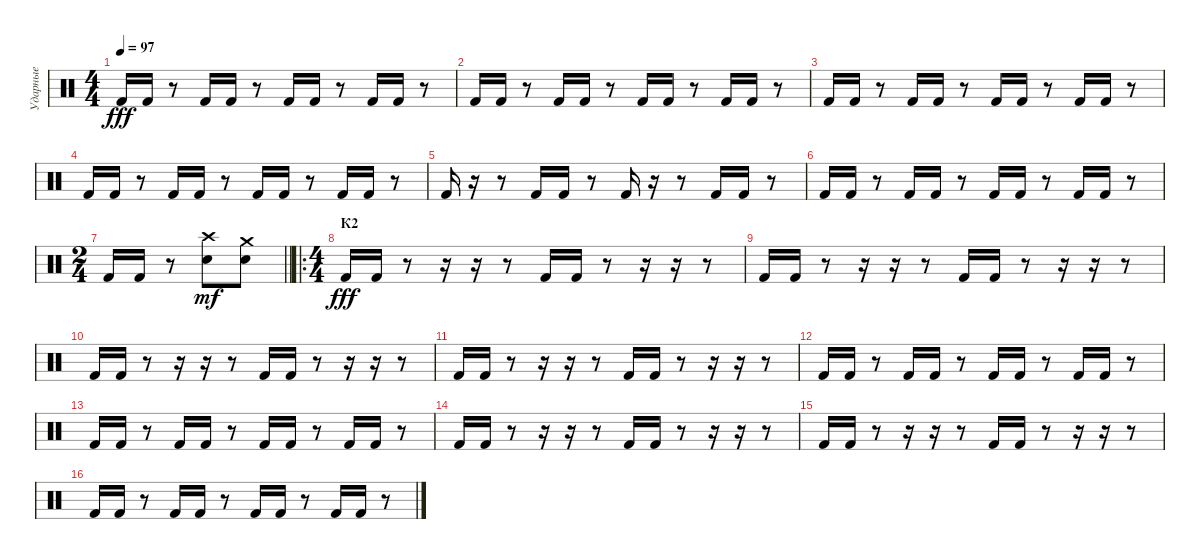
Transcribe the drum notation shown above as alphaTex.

\track ("Ударные" "Ударные") {instrument percussion}
\staff {score}
\articulation defaults
\ts (4 4)
\tempo 97
\clef neutral
\ks c "Kick (hit) 2".16{dy fff} "Kick (hit) 2".16
r.8 "Kick (hit) 2".16 "Kick (hit) 2".16 r.8 "Kick (hit) 2".16 "Kick (hit) 2".16 r.8 "Kick (hit) 2".16 "Kick (hit) 2".16 r.8 |
"Kick (hit) 2".16 "Kick (hit) 2".16 r.8 "Kick (hit) 2".16 "Kick (hit) 2".16 r.8 "Kick (hit) 2".16 "Kick (hit) 2".16 r.8 "Kick (hit) 2".16 "Kick (hit) 2".16 r.8 |
"Kick (hit) 2".16 "Kick (hit) 2".16 r.8 "Kick (hit) 2".16 "Kick (hit) 2".16 r.8 "Kick (hit) 2".16 "Kick (hit) 2".16 r.8 "Kick (hit) 2".16 "Kick (hit) 2".16 r.8 |
"Kick (hit) 2".16 "Kick (hit) 2".16 r.8 "Kick (hit) 2".16 "Kick (hit) 2".16 r.8 "Kick (hit) 2".16 "Kick (hit) 2".16 r.8 "Kick (hit) 2".16 "Kick (hit) 2".16 r.8 |
"Kick (hit) 2".16 r.16 r.8 "Kick (hit) 2".16 "Kick (hit) 2".16 r.8 "Kick (hit) 2".16 r.16 r.8 "Kick (hit) 2".16 "Kick (hit) 2".16 r.8 |
"Kick (hit) 2".16 "Kick (hit) 2".16 r.8 "Kick (hit) 2".16 "Kick (hit) 2".16 r.8 "Kick (hit) 2".16 "Kick (hit) 2".16 r.8 "Kick (hit) 2".16 "Kick (hit) 2".16 r.8 |
\ts (2 4)
\barLineRight lightlight "Kick (hit) 2".16 "Kick (hit) 2".16
r.8 ("Electric Snare (hit)" "Crash high (hit)").8{dy mf} ("Electric Snare (hit)" "Crash medium (hit)").8 |
\ro
\ts (4 4)
\section ("" "К2")
"Kick (hit) 2".16{dy fff} "Kick (hit) 2".16 r.8 r.16 r.16 r.8 "Kick (hit) 2".16 "Kick (hit) 2".16 r.8 r.16 r.16 r.8 |
"Kick (hit) 2".16 "Kick (hit) 2".16 r.8 r.16 r.16 r.8 "Kick (hit) 2".16 "Kick (hit) 2".16 r.8 r.16 r.16 r.8 |
"Kick (hit) 2".16 "Kick (hit) 2".16 r.8 r.16 r.16 r.8 "Kick (hit) 2".16 "Kick (hit) 2".16 r.8 r.16 r.16 r.8 |
"Kick (hit) 2".16 "Kick (hit) 2".16 r.8 r.16 r.16 r.8 "Kick (hit) 2".16 "Kick (hit) 2".16 r.8 r.16 r.16 r.8 |
"Kick (hit) 2".16 "Kick (hit) 2".16 r.8 "Kick (hit) 2".16 "Kick (hit) 2".16 r.8 "Kick (hit) 2".16 "Kick (hit) 2".16 r.8 "Kick (hit) 2".16 "Kick (hit) 2".16 r.8 |
"Kick (hit) 2".16 "Kick (hit) 2".16 r.8 "Kick (hit) 2".16 "Kick (hit) 2".16 r.8 "Kick (hit) 2".16 "Kick (hit) 2".16 r.8 "Kick (hit) 2".16 "Kick (hit) 2".16 r.8 |
"Kick (hit) 2".16 "Kick (hit) 2".16 r.8 r.16 r.16 r.8 "Kick (hit) 2".16 "Kick (hit) 2".16 r.8 r.16 r.16 r.8 |
"Kick (hit) 2".16 "Kick (hit) 2".16 r.8 r.16 r.16 r.8 "Kick (hit) 2".16 "Kick (hit) 2".16 r.8 r.16 r.16 r.8 |
"Kick (hit) 2".16 "Kick (hit) 2".16 r.8 "Kick (hit) 2".16 "Kick (hit) 2".16 r.8 "Kick (hit) 2".16 "Kick (hit) 2".16 r.8 "Kick (hit) 2".16 "Kick (hit) 2".16 r.8
